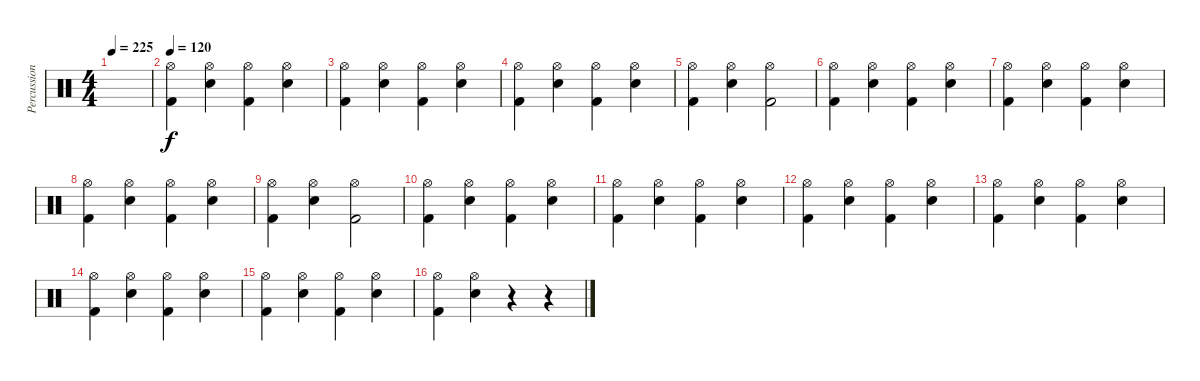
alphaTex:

\track ("Percussion" "Percussion") {instrument percussion}
\staff {score}
\articulation defaults
\ts (4 4)
\tempo 225
\clef neutral
\ks c
|
\tempo 120
("Kick (hit) 2" "Hi-Hat (open)").4 ("Electric Snare (hit)" "Hi-Hat (open)").4 ("Kick (hit) 2" "Hi-Hat (open)").4 ("Electric Snare (hit)" "Hi-Hat (open)").4 |
("Kick (hit) 2" "Hi-Hat (open)").4 ("Electric Snare (hit)" "Hi-Hat (open)").4 ("Kick (hit) 2" "Hi-Hat (open)").4 ("Electric Snare (hit)" "Hi-Hat (open)").4 |
("Kick (hit) 2" "Hi-Hat (open)").4 ("Electric Snare (hit)" "Hi-Hat (open)").4 ("Kick (hit) 2" "Hi-Hat (open)").4 ("Electric Snare (hit)" "Hi-Hat (open)").4 |
("Kick (hit) 2" "Hi-Hat (open)").4 ("Electric Snare (hit)" "Hi-Hat (open)").4 ("Kick (hit) 2" "Hi-Hat (open)").2 |
("Kick (hit) 2" "Hi-Hat (open)").4 ("Electric Snare (hit)" "Hi-Hat (open)").4 ("Kick (hit) 2" "Hi-Hat (open)").4 ("Electric Snare (hit)" "Hi-Hat (open)").4 |
("Kick (hit) 2" "Hi-Hat (open)").4 ("Electric Snare (hit)" "Hi-Hat (open)").4 ("Kick (hit) 2" "Hi-Hat (open)").4 ("Electric Snare (hit)" "Hi-Hat (open)").4 |
("Kick (hit) 2" "Hi-Hat (open)").4 ("Electric Snare (hit)" "Hi-Hat (open)").4 ("Kick (hit) 2" "Hi-Hat (open)").4 ("Electric Snare (hit)" "Hi-Hat (open)").4 |
("Kick (hit) 2" "Hi-Hat (open)").4 ("Electric Snare (hit)" "Hi-Hat (open)").4 ("Kick (hit) 2" "Hi-Hat (open)").2 |
("Kick (hit) 2" "Hi-Hat (open)").4 ("Electric Snare (hit)" "Hi-Hat (open)").4 ("Kick (hit) 2" "Hi-Hat (open)").4 ("Electric Snare (hit)" "Hi-Hat (open)").4 |
("Kick (hit) 2" "Hi-Hat (open)").4 ("Electric Snare (hit)" "Hi-Hat (open)").4 ("Kick (hit) 2" "Hi-Hat (open)").4 ("Electric Snare (hit)" "Hi-Hat (open)").4 |
("Kick (hit) 2" "Hi-Hat (open)").4 ("Electric Snare (hit)" "Hi-Hat (open)").4 ("Kick (hit) 2" "Hi-Hat (open)").4 ("Electric Snare (hit)" "Hi-Hat (open)").4 |
("Kick (hit) 2" "Hi-Hat (open)").4 ("Electric Snare (hit)" "Hi-Hat (open)").4 ("Kick (hit) 2" "Hi-Hat (open)").4 ("Electric Snare (hit)" "Hi-Hat (open)").4 |
("Kick (hit) 2" "Hi-Hat (open)").4 ("Electric Snare (hit)" "Hi-Hat (open)").4 ("Kick (hit) 2" "Hi-Hat (open)").4 ("Electric Snare (hit)" "Hi-Hat (open)").4 |
("Kick (hit) 2" "Hi-Hat (open)").4 ("Electric Snare (hit)" "Hi-Hat (open)").4 ("Kick (hit) 2" "Hi-Hat (open)").4 ("Electric Snare (hit)" "Hi-Hat (open)").4 |
("Kick (hit) 2" "Hi-Hat (open)").4 ("Electric Snare (hit)" "Hi-Hat (open)").4 r.4 r.4
